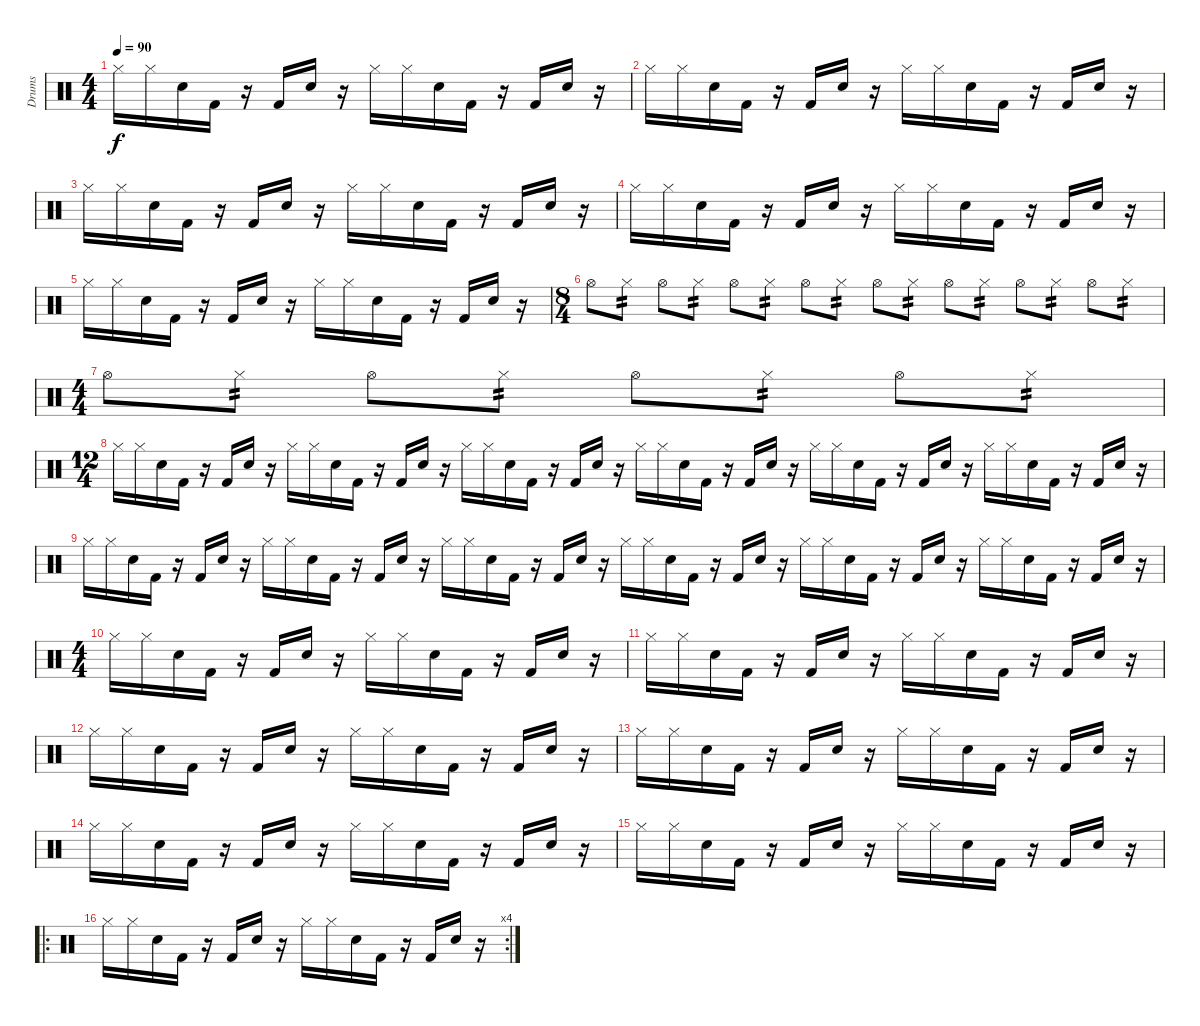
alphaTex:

\track ("Drums" "Drums") {instrument percussion}
\staff {score}
\articulation defaults
\ts (4 4)
\tempo 90
\clef neutral
\ks c "Hi-Hat (closed)".16{dy f} "Hi-Hat (closed)".16 "Snare (hit) 2".16 "Kick (hit) 2".16
r.16 "Kick (hit) 2".16 "Snare (hit) 2".16 r.16 "Hi-Hat (closed)".16 "Hi-Hat (closed)".16 "Snare (hit) 2".16 "Kick (hit) 2".16 r.16 "Kick (hit) 2".16 "Snare (hit) 2".16 r.16 |
"Hi-Hat (closed)".16 "Hi-Hat (closed)".16 "Snare (hit) 2".16 "Kick (hit) 2".16 r.16 "Kick (hit) 2".16 "Snare (hit) 2".16 r.16 "Hi-Hat (closed)".16 "Hi-Hat (closed)".16 "Snare (hit) 2".16 "Kick (hit) 2".16 r.16 "Kick (hit) 2".16 "Snare (hit) 2".16 r.16 |
"Hi-Hat (closed)".16 "Hi-Hat (closed)".16 "Snare (hit) 2".16 "Kick (hit) 2".16 r.16 "Kick (hit) 2".16 "Snare (hit) 2".16 r.16 "Hi-Hat (closed)".16 "Hi-Hat (closed)".16 "Snare (hit) 2".16 "Kick (hit) 2".16 r.16 "Kick (hit) 2".16 "Snare (hit) 2".16 r.16 |
"Hi-Hat (closed)".16 "Hi-Hat (closed)".16 "Snare (hit) 2".16 "Kick (hit) 2".16 r.16 "Kick (hit) 2".16 "Snare (hit) 2".16 r.16 "Hi-Hat (closed)".16 "Hi-Hat (closed)".16 "Snare (hit) 2".16 "Kick (hit) 2".16 r.16 "Kick (hit) 2".16 "Snare (hit) 2".16 r.16 |
"Hi-Hat (closed)".16 "Hi-Hat (closed)".16 "Snare (hit) 2".16 "Kick (hit) 2".16 r.16 "Kick (hit) 2".16 "Snare (hit) 2".16 r.16 "Hi-Hat (closed)".16 "Hi-Hat (closed)".16 "Snare (hit) 2".16 "Kick (hit) 2".16 r.16 "Kick (hit) 2".16 "Snare (hit) 2".16 r.16 |
\ts (8 4)
"Hi-Hat (open)".8 "Hi-Hat (closed)".8{tp 2} "Hi-Hat (open)".8 "Hi-Hat (closed)".8{tp 2} "Hi-Hat (open)".8 "Hi-Hat (closed)".8{tp 2} "Hi-Hat (open)".8 "Hi-Hat (closed)".8{tp 2} "Hi-Hat (open)".8 "Hi-Hat (closed)".8{tp 2} "Hi-Hat (open)".8 "Hi-Hat (closed)".8{tp 2} "Hi-Hat (open)".8 "Hi-Hat (closed)".8{tp 2} "Hi-Hat (open)".8 "Hi-Hat (closed)".8{tp 2} |
\ts (4 4)
"Hi-Hat (open)".8 "Hi-Hat (closed)".8{tp 2} "Hi-Hat (open)".8 "Hi-Hat (closed)".8{tp 2} "Hi-Hat (open)".8 "Hi-Hat (closed)".8{tp 2} "Hi-Hat (open)".8 "Hi-Hat (closed)".8{tp 2} |
\ts (12 4)
"Hi-Hat (closed)".16 "Hi-Hat (closed)".16 "Snare (hit) 2".16 "Kick (hit) 2".16 r.16 "Kick (hit) 2".16 "Snare (hit) 2".16 r.16 "Hi-Hat (closed)".16 "Hi-Hat (closed)".16 "Snare (hit) 2".16 "Kick (hit) 2".16 r.16 "Kick (hit) 2".16 "Snare (hit) 2".16 r.16 "Hi-Hat (closed)".16 "Hi-Hat (closed)".16 "Snare (hit) 2".16 "Kick (hit) 2".16 r.16 "Kick (hit) 2".16 "Snare (hit) 2".16 r.16 "Hi-Hat (closed)".16 "Hi-Hat (closed)".16 "Snare (hit) 2".16 "Kick (hit) 2".16 r.16 "Kick (hit) 2".16 "Snare (hit) 2".16 r.16 "Hi-Hat (closed)".16 "Hi-Hat (closed)".16 "Snare (hit) 2".16 "Kick (hit) 2".16 r.16 "Kick (hit) 2".16 "Snare (hit) 2".16 r.16 "Hi-Hat (closed)".16 "Hi-Hat (closed)".16 "Snare (hit) 2".16 "Kick (hit) 2".16 r.16 "Kick (hit) 2".16 "Snare (hit) 2".16 r.16 |
"Hi-Hat (closed)".16 "Hi-Hat (closed)".16 "Snare (hit) 2".16 "Kick (hit) 2".16 r.16 "Kick (hit) 2".16 "Snare (hit) 2".16 r.16 "Hi-Hat (closed)".16 "Hi-Hat (closed)".16 "Snare (hit) 2".16 "Kick (hit) 2".16 r.16 "Kick (hit) 2".16 "Snare (hit) 2".16 r.16 "Hi-Hat (closed)".16 "Hi-Hat (closed)".16 "Snare (hit) 2".16 "Kick (hit) 2".16 r.16 "Kick (hit) 2".16 "Snare (hit) 2".16 r.16 "Hi-Hat (closed)".16 "Hi-Hat (closed)".16 "Snare (hit) 2".16 "Kick (hit) 2".16 r.16 "Kick (hit) 2".16 "Snare (hit) 2".16 r.16 "Hi-Hat (closed)".16 "Hi-Hat (closed)".16 "Snare (hit) 2".16 "Kick (hit) 2".16 r.16 "Kick (hit) 2".16 "Snare (hit) 2".16 r.16 "Hi-Hat (closed)".16 "Hi-Hat (closed)".16 "Snare (hit) 2".16 "Kick (hit) 2".16 r.16 "Kick (hit) 2".16 "Snare (hit) 2".16 r.16 |
\ts (4 4)
"Hi-Hat (closed)".16 "Hi-Hat (closed)".16 "Snare (hit) 2".16 "Kick (hit) 2".16 r.16 "Kick (hit) 2".16 "Snare (hit) 2".16 r.16 "Hi-Hat (closed)".16 "Hi-Hat (closed)".16 "Snare (hit) 2".16 "Kick (hit) 2".16 r.16 "Kick (hit) 2".16 "Snare (hit) 2".16 r.16 |
"Hi-Hat (closed)".16 "Hi-Hat (closed)".16 "Snare (hit) 2".16 "Kick (hit) 2".16 r.16 "Kick (hit) 2".16 "Snare (hit) 2".16 r.16 "Hi-Hat (closed)".16 "Hi-Hat (closed)".16 "Snare (hit) 2".16 "Kick (hit) 2".16 r.16 "Kick (hit) 2".16 "Snare (hit) 2".16 r.16 |
"Hi-Hat (closed)".16 "Hi-Hat (closed)".16 "Snare (hit) 2".16 "Kick (hit) 2".16 r.16 "Kick (hit) 2".16 "Snare (hit) 2".16 r.16 "Hi-Hat (closed)".16 "Hi-Hat (closed)".16 "Snare (hit) 2".16 "Kick (hit) 2".16 r.16 "Kick (hit) 2".16 "Snare (hit) 2".16 r.16 |
"Hi-Hat (closed)".16 "Hi-Hat (closed)".16 "Snare (hit) 2".16 "Kick (hit) 2".16 r.16 "Kick (hit) 2".16 "Snare (hit) 2".16 r.16 "Hi-Hat (closed)".16 "Hi-Hat (closed)".16 "Snare (hit) 2".16 "Kick (hit) 2".16 r.16 "Kick (hit) 2".16 "Snare (hit) 2".16 r.16 |
"Hi-Hat (closed)".16 "Hi-Hat (closed)".16 "Snare (hit) 2".16 "Kick (hit) 2".16 r.16 "Kick (hit) 2".16 "Snare (hit) 2".16 r.16 "Hi-Hat (closed)".16 "Hi-Hat (closed)".16 "Snare (hit) 2".16 "Kick (hit) 2".16 r.16 "Kick (hit) 2".16 "Snare (hit) 2".16 r.16 |
"Hi-Hat (closed)".16 "Hi-Hat (closed)".16 "Snare (hit) 2".16 "Kick (hit) 2".16 r.16 "Kick (hit) 2".16 "Snare (hit) 2".16 r.16 "Hi-Hat (closed)".16 "Hi-Hat (closed)".16 "Snare (hit) 2".16 "Kick (hit) 2".16 r.16 "Kick (hit) 2".16 "Snare (hit) 2".16 r.16 |
\ro
\rc 4 "Hi-Hat (closed)".16 "Hi-Hat (closed)".16 "Snare (hit) 2".16 "Kick (hit) 2".16
r.16 "Kick (hit) 2".16 "Snare (hit) 2".16 r.16 "Hi-Hat (closed)".16 "Hi-Hat (closed)".16 "Snare (hit) 2".16 "Kick (hit) 2".16 r.16 "Kick (hit) 2".16 "Snare (hit) 2".16 r.16
